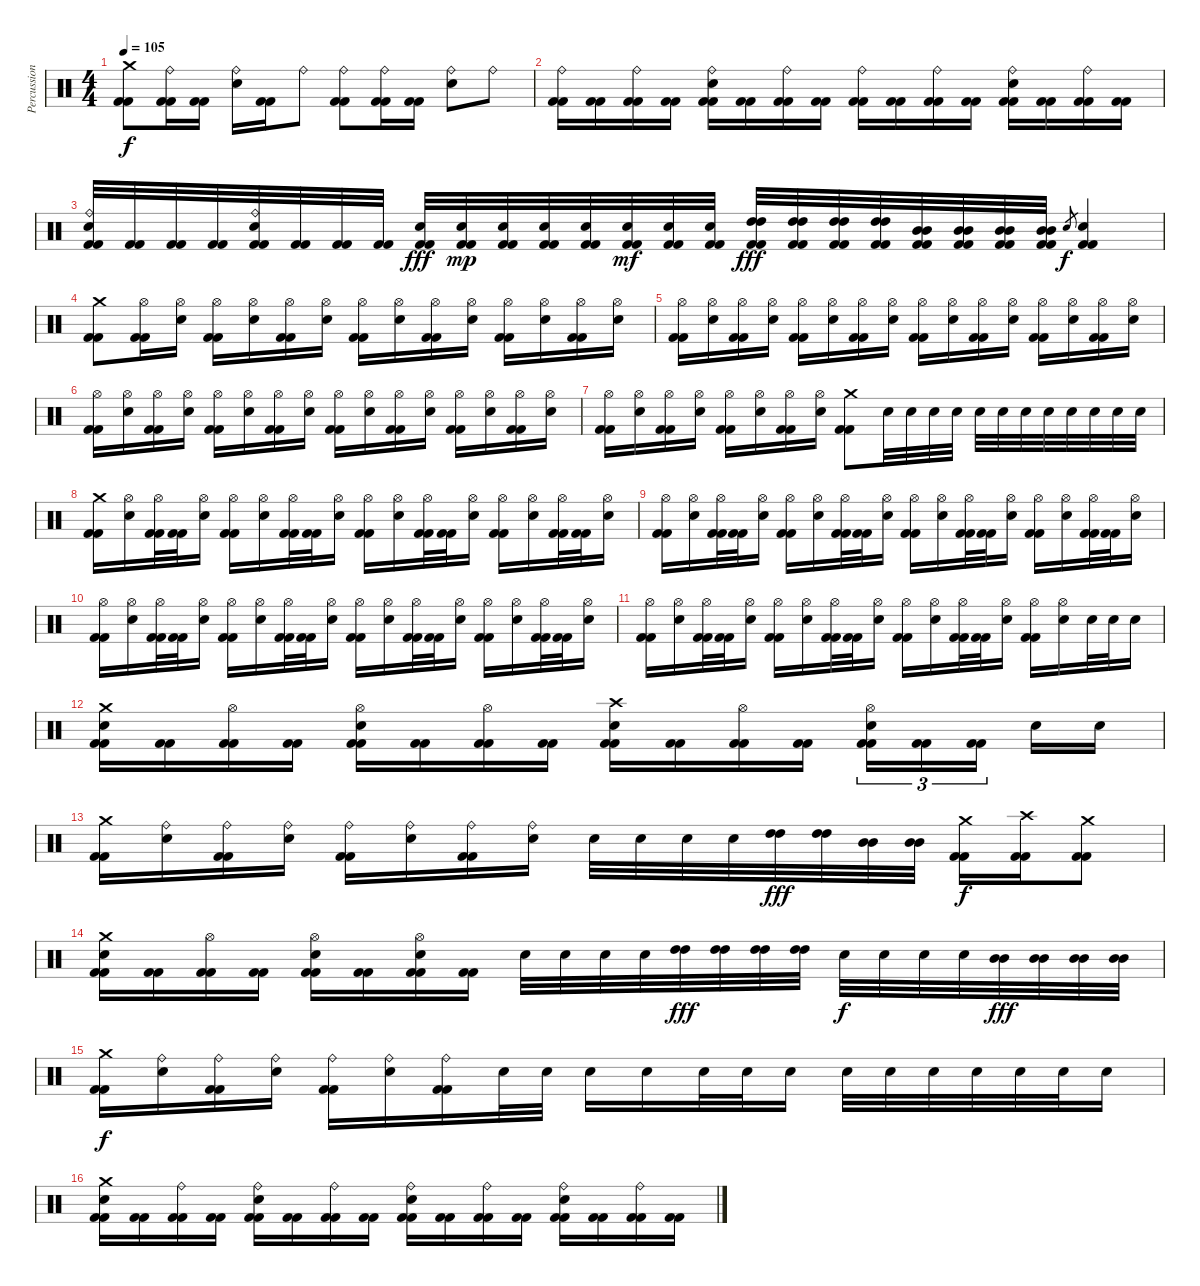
\track ("Percussion" "Percussion") {instrument percussion}
\staff {score}
\articulation defaults
\ts (4 4)
\tempo 105
\clef neutral
\ks c
("Kick (hit) 2" "Kick (hit) 2" "Crash medium (hit)").8{dy f} ("Kick (hit) 2" "Kick (hit) 2" "Ride (bell)").16 ("Kick (hit) 2" "Kick (hit) 2").16 ("Ride (bell)" "Electric Snare (hit)").16 ("Kick (hit) 2" "Kick (hit) 2").16 "Ride (bell)".8 ("Kick (hit) 2" "Kick (hit) 2" "Ride (bell)").8 ("Kick (hit) 2" "Kick (hit) 2" "Ride (bell)").16 ("Kick (hit) 2" "Kick (hit) 2").16 ("Ride (bell)" "Electric Snare (hit)").8 "Ride (bell)".8 |
("Kick (hit) 2" "Kick (hit) 2" "Ride (bell)").16 ("Kick (hit) 2" "Kick (hit) 2").16 ("Kick (hit) 2" "Kick (hit) 2" "Ride (bell)").16 ("Kick (hit) 2" "Kick (hit) 2").16 ("Kick (hit) 2" "Kick (hit) 2" "Ride (bell)" "Electric Snare (hit)").16 ("Kick (hit) 2" "Kick (hit) 2").16 ("Kick (hit) 2" "Kick (hit) 2" "Ride (bell)").16 ("Kick (hit) 2" "Kick (hit) 2").16 ("Kick (hit) 2" "Kick (hit) 2" "Ride (bell)").16 ("Kick (hit) 2" "Kick (hit) 2").16 ("Kick (hit) 2" "Kick (hit) 2" "Ride (bell)").16 ("Kick (hit) 2" "Kick (hit) 2").16 ("Kick (hit) 2" "Kick (hit) 2" "Ride (bell)" "Electric Snare (hit)").16 ("Kick (hit) 2" "Kick (hit) 2").16 ("Kick (hit) 2" "Kick (hit) 2" "Ride (bell)").16 ("Kick (hit) 2" "Kick (hit) 2").16 |
("Kick (hit) 2" "Kick (hit) 2" "Electric Snare (hit)" "Ride (bell)").32 ("Kick (hit) 2" "Kick (hit) 2").32 ("Kick (hit) 2" "Kick (hit) 2").32 ("Kick (hit) 2" "Kick (hit) 2").32 ("Kick (hit) 2" "Kick (hit) 2" "Electric Snare (hit)" "Ride (bell)").32 ("Kick (hit) 2" "Kick (hit) 2").32 ("Kick (hit) 2" "Kick (hit) 2").32 ("Kick (hit) 2" "Kick (hit) 2").32 ("Kick (hit) 2" "Kick (hit) 2" "Electric Snare (hit)").32{dy fff} ("Kick (hit) 2" "Kick (hit) 2" "Electric Snare (hit)").32{dy mp} ("Kick (hit) 2" "Kick (hit) 2" "Electric Snare (hit)").32 ("Kick (hit) 2" "Kick (hit) 2" "Electric Snare (hit)").32 ("Kick (hit) 2" "Kick (hit) 2" "Electric Snare (hit)").32 ("Kick (hit) 2" "Kick (hit) 2" "Electric Snare (hit)").32{dy mf} ("Kick (hit) 2" "Kick (hit) 2" "Electric Snare (hit)").32 ("Kick (hit) 2" "Kick (hit) 2" "Electric Snare (hit)").32 ("Kick (hit) 2" "Kick (hit) 2" "High Tom (hit)" "High Tom (hit)").32{dy fff} ("Kick (hit) 2" "Kick (hit) 2" "High Tom (hit)" "High Tom (hit)").32 ("Kick (hit) 2" "Kick (hit) 2" "High Tom (hit)" "High Tom (hit)").32 ("Kick (hit) 2" "Kick (hit) 2" "High Tom (hit)" "High Tom (hit)").32 ("Kick (hit) 2" "Kick (hit) 2" "Mid Tom (hit)" "Mid Tom (hit)").32 ("Kick (hit) 2" "Kick (hit) 2" "Mid Tom (hit)" "Mid Tom (hit)").32 ("Kick (hit) 2" "Kick (hit) 2" "Mid Tom (hit)" "Mid Tom (hit)").32 ("Kick (hit) 2" "Kick (hit) 2" "Mid Tom (hit)" "Mid Tom (hit)").32 "Electric Snare (hit)".8{gr dy f} ("Kick (hit) 2" "Electric Snare (hit)" "Kick (hit) 2").4 |
("Kick (hit) 2" "Kick (hit) 2" "Crash medium (hit)").8 ("Kick (hit) 2" "Kick (hit) 2" "Hi-Hat (open)").16 ("Hi-Hat (open)" "Electric Snare (hit)").16 ("Kick (hit) 2" "Kick (hit) 2" "Hi-Hat (open)").16 ("Hi-Hat (open)" "Electric Snare (hit)").16 ("Kick (hit) 2" "Kick (hit) 2" "Hi-Hat (open)").16 ("Hi-Hat (open)" "Electric Snare (hit)").16 ("Kick (hit) 2" "Kick (hit) 2" "Hi-Hat (open)").16 ("Hi-Hat (open)" "Electric Snare (hit)").16 ("Kick (hit) 2" "Kick (hit) 2" "Hi-Hat (open)").16 ("Hi-Hat (open)" "Electric Snare (hit)").16 ("Kick (hit) 2" "Kick (hit) 2" "Hi-Hat (open)").16 ("Hi-Hat (open)" "Electric Snare (hit)").16 ("Kick (hit) 2" "Kick (hit) 2" "Hi-Hat (open)").16 ("Hi-Hat (open)" "Electric Snare (hit)").16 |
("Kick (hit) 2" "Kick (hit) 2" "Hi-Hat (open)").16 ("Hi-Hat (open)" "Electric Snare (hit)").16 ("Kick (hit) 2" "Kick (hit) 2" "Hi-Hat (open)").16 ("Hi-Hat (open)" "Electric Snare (hit)").16 ("Kick (hit) 2" "Kick (hit) 2" "Hi-Hat (open)").16 ("Hi-Hat (open)" "Electric Snare (hit)").16 ("Kick (hit) 2" "Kick (hit) 2" "Hi-Hat (open)").16 ("Hi-Hat (open)" "Electric Snare (hit)").16 ("Kick (hit) 2" "Kick (hit) 2" "Hi-Hat (open)").16 ("Hi-Hat (open)" "Electric Snare (hit)").16 ("Kick (hit) 2" "Kick (hit) 2" "Hi-Hat (open)").16 ("Hi-Hat (open)" "Electric Snare (hit)").16 ("Kick (hit) 2" "Kick (hit) 2" "Hi-Hat (open)").16 ("Hi-Hat (open)" "Electric Snare (hit)").16 ("Kick (hit) 2" "Kick (hit) 2" "Hi-Hat (open)").16 ("Hi-Hat (open)" "Electric Snare (hit)").16 |
("Kick (hit) 2" "Kick (hit) 2" "Hi-Hat (open)").16 ("Hi-Hat (open)" "Electric Snare (hit)").16 ("Kick (hit) 2" "Kick (hit) 2" "Hi-Hat (open)").16 ("Hi-Hat (open)" "Electric Snare (hit)").16 ("Kick (hit) 2" "Kick (hit) 2" "Hi-Hat (open)").16 ("Hi-Hat (open)" "Electric Snare (hit)").16 ("Kick (hit) 2" "Kick (hit) 2" "Hi-Hat (open)").16 ("Hi-Hat (open)" "Electric Snare (hit)").16 ("Kick (hit) 2" "Kick (hit) 2" "Hi-Hat (open)").16 ("Hi-Hat (open)" "Electric Snare (hit)").16 ("Kick (hit) 2" "Kick (hit) 2" "Hi-Hat (open)").16 ("Hi-Hat (open)" "Electric Snare (hit)").16 ("Kick (hit) 2" "Kick (hit) 2" "Hi-Hat (open)").16 ("Hi-Hat (open)" "Electric Snare (hit)").16 ("Kick (hit) 2" "Kick (hit) 2" "Hi-Hat (open)").16 ("Hi-Hat (open)" "Electric Snare (hit)").16 |
("Kick (hit) 2" "Kick (hit) 2" "Hi-Hat (open)").16 ("Hi-Hat (open)" "Electric Snare (hit)").16 ("Kick (hit) 2" "Kick (hit) 2" "Hi-Hat (open)").16 ("Hi-Hat (open)" "Electric Snare (hit)").16 ("Kick (hit) 2" "Kick (hit) 2" "Hi-Hat (open)").16 ("Hi-Hat (open)" "Electric Snare (hit)").16 ("Kick (hit) 2" "Kick (hit) 2" "Hi-Hat (open)").16 ("Hi-Hat (open)" "Electric Snare (hit)").16 ("Kick (hit) 2" "Kick (hit) 2" "Crash medium (hit)").8 "Electric Snare (hit)".32 "Electric Snare (hit)".32 "Electric Snare (hit)".32 "Electric Snare (hit)".32 "Electric Snare (hit)".32 "Electric Snare (hit)".32 "Electric Snare (hit)".32 "Electric Snare (hit)".32 "Electric Snare (hit)".32 "Electric Snare (hit)".32 "Electric Snare (hit)".32 "Electric Snare (hit)".32 |
("Kick (hit) 2" "Kick (hit) 2" "Crash medium (hit)").16 ("Hi-Hat (open)" "Electric Snare (hit)").16 ("Kick (hit) 2" "Kick (hit) 2" "Hi-Hat (open)").32 ("Kick (hit) 2" "Kick (hit) 2").32 ("Hi-Hat (open)" "Electric Snare (hit)").16 ("Kick (hit) 2" "Kick (hit) 2" "Hi-Hat (open)").16 ("Hi-Hat (open)" "Electric Snare (hit)").16 ("Kick (hit) 2" "Kick (hit) 2" "Hi-Hat (open)").32 ("Kick (hit) 2" "Kick (hit) 2").32 ("Hi-Hat (open)" "Electric Snare (hit)").16 ("Kick (hit) 2" "Kick (hit) 2" "Hi-Hat (open)").16 ("Hi-Hat (open)" "Electric Snare (hit)").16 ("Kick (hit) 2" "Kick (hit) 2" "Hi-Hat (open)").32 ("Kick (hit) 2" "Kick (hit) 2").32 ("Hi-Hat (open)" "Electric Snare (hit)").16 ("Kick (hit) 2" "Kick (hit) 2" "Hi-Hat (open)").16 ("Hi-Hat (open)" "Electric Snare (hit)").16 ("Kick (hit) 2" "Kick (hit) 2" "Hi-Hat (open)").32 ("Kick (hit) 2" "Kick (hit) 2").32 ("Hi-Hat (open)" "Electric Snare (hit)").16 |
("Kick (hit) 2" "Kick (hit) 2" "Hi-Hat (open)").16 ("Hi-Hat (open)" "Electric Snare (hit)").16 ("Kick (hit) 2" "Kick (hit) 2" "Hi-Hat (open)").32 ("Kick (hit) 2" "Kick (hit) 2").32 ("Hi-Hat (open)" "Electric Snare (hit)").16 ("Kick (hit) 2" "Kick (hit) 2" "Hi-Hat (open)").16 ("Hi-Hat (open)" "Electric Snare (hit)").16 ("Kick (hit) 2" "Kick (hit) 2" "Hi-Hat (open)").32 ("Kick (hit) 2" "Kick (hit) 2").32 ("Hi-Hat (open)" "Electric Snare (hit)").16 ("Kick (hit) 2" "Kick (hit) 2" "Hi-Hat (open)").16 ("Hi-Hat (open)" "Electric Snare (hit)").16 ("Kick (hit) 2" "Kick (hit) 2" "Hi-Hat (open)").32 ("Kick (hit) 2" "Kick (hit) 2").32 ("Hi-Hat (open)" "Electric Snare (hit)").16 ("Kick (hit) 2" "Kick (hit) 2" "Hi-Hat (open)").16 ("Hi-Hat (open)" "Electric Snare (hit)").16 ("Kick (hit) 2" "Kick (hit) 2" "Hi-Hat (open)").32 ("Kick (hit) 2" "Kick (hit) 2").32 ("Hi-Hat (open)" "Electric Snare (hit)").16 |
("Kick (hit) 2" "Kick (hit) 2" "Hi-Hat (open)").16 ("Hi-Hat (open)" "Electric Snare (hit)").16 ("Kick (hit) 2" "Kick (hit) 2" "Hi-Hat (open)").32 ("Kick (hit) 2" "Kick (hit) 2").32 ("Hi-Hat (open)" "Electric Snare (hit)").16 ("Kick (hit) 2" "Kick (hit) 2" "Hi-Hat (open)").16 ("Hi-Hat (open)" "Electric Snare (hit)").16 ("Kick (hit) 2" "Kick (hit) 2" "Hi-Hat (open)").32 ("Kick (hit) 2" "Kick (hit) 2").32 ("Hi-Hat (open)" "Electric Snare (hit)").16 ("Kick (hit) 2" "Kick (hit) 2" "Hi-Hat (open)").16 ("Hi-Hat (open)" "Electric Snare (hit)").16 ("Kick (hit) 2" "Kick (hit) 2" "Hi-Hat (open)").32 ("Kick (hit) 2" "Kick (hit) 2").32 ("Hi-Hat (open)" "Electric Snare (hit)").16 ("Kick (hit) 2" "Kick (hit) 2" "Hi-Hat (open)").16 ("Hi-Hat (open)" "Electric Snare (hit)").16 ("Kick (hit) 2" "Kick (hit) 2" "Hi-Hat (open)").32 ("Kick (hit) 2" "Kick (hit) 2").32 ("Hi-Hat (open)" "Electric Snare (hit)").16 |
("Kick (hit) 2" "Kick (hit) 2" "Hi-Hat (open)").16 ("Hi-Hat (open)" "Electric Snare (hit)").16 ("Kick (hit) 2" "Kick (hit) 2" "Hi-Hat (open)").32 ("Kick (hit) 2" "Kick (hit) 2").32 ("Hi-Hat (open)" "Electric Snare (hit)").16 ("Kick (hit) 2" "Kick (hit) 2" "Hi-Hat (open)").16 ("Hi-Hat (open)" "Electric Snare (hit)").16 ("Kick (hit) 2" "Kick (hit) 2" "Hi-Hat (open)").32 ("Kick (hit) 2" "Kick (hit) 2").32 ("Hi-Hat (open)" "Electric Snare (hit)").16 ("Kick (hit) 2" "Kick (hit) 2" "Hi-Hat (open)").16 ("Hi-Hat (open)" "Electric Snare (hit)").16 ("Kick (hit) 2" "Kick (hit) 2" "Hi-Hat (open)").32 ("Kick (hit) 2" "Kick (hit) 2").32 ("Hi-Hat (open)" "Electric Snare (hit)").16 ("Kick (hit) 2" "Kick (hit) 2" "Hi-Hat (open)").16 ("Hi-Hat (open)" "Electric Snare (hit)").16 "Electric Snare (hit)".32 "Electric Snare (hit)".32 "Electric Snare (hit)".16 |
("Electric Snare (hit)" "Crash medium (hit)" "Kick (hit) 2" "Kick (hit) 2").16 ("Kick (hit) 2" "Kick (hit) 2").16 ("Hi-Hat (open)" "Kick (hit) 2" "Kick (hit) 2").16 ("Kick (hit) 2" "Kick (hit) 2").16 ("Electric Snare (hit)" "Hi-Hat (open)" "Kick (hit) 2" "Kick (hit) 2").16 ("Kick (hit) 2" "Kick (hit) 2").16 ("Hi-Hat (open)" "Kick (hit) 2" "Kick (hit) 2").16 ("Kick (hit) 2" "Kick (hit) 2").16 ("Electric Snare (hit)" "Crash high (hit)" "Kick (hit) 2" "Kick (hit) 2").16 ("Kick (hit) 2" "Kick (hit) 2").16 ("Hi-Hat (open)" "Kick (hit) 2" "Kick (hit) 2").16 ("Kick (hit) 2" "Kick (hit) 2").16 ("Electric Snare (hit)" "Hi-Hat (open)" "Kick (hit) 2" "Kick (hit) 2").16{tu (3 2)} ("Kick (hit) 2" "Kick (hit) 2").16{tu (3 2)} ("Kick (hit) 2" "Kick (hit) 2").16{tu (3 2)} "Electric Snare (hit)".16 "Electric Snare (hit)".16 |
("Kick (hit) 2" "Kick (hit) 2" "Crash medium (hit)").16 ("Ride (bell)" "Electric Snare (hit)").16 ("Kick (hit) 2" "Kick (hit) 2" "Ride (bell)").16 ("Ride (bell)" "Electric Snare (hit)").16 ("Kick (hit) 2" "Kick (hit) 2" "Ride (bell)").16 ("Ride (bell)" "Electric Snare (hit)").16 ("Kick (hit) 2" "Kick (hit) 2" "Ride (bell)").16 ("Ride (bell)" "Electric Snare (hit)").16 "Electric Snare (hit)".32 "Electric Snare (hit)".32 "Electric Snare (hit)".32 "Electric Snare (hit)".32 ("High Tom (hit)" "High Tom (hit)").32{dy fff} ("High Tom (hit)" "High Tom (hit)").32 ("Mid Tom (hit)" "Mid Tom (hit)").32 ("Mid Tom (hit)" "Mid Tom (hit)").32 ("Kick (hit) 2" "Kick (hit) 2" "Crash medium (hit)").16{dy f} ("Kick (hit) 2" "Kick (hit) 2" "Crash high (hit)").16 ("Kick (hit) 2" "Kick (hit) 2" "Crash medium (hit)").8 |
("Electric Snare (hit)" "Crash medium (hit)" "Kick (hit) 2" "Kick (hit) 2").16 ("Kick (hit) 2" "Kick (hit) 2").16 ("Hi-Hat (open)" "Kick (hit) 2" "Kick (hit) 2").16 ("Kick (hit) 2" "Kick (hit) 2").16 ("Electric Snare (hit)" "Hi-Hat (open)" "Kick (hit) 2" "Kick (hit) 2").16 ("Kick (hit) 2" "Kick (hit) 2").16 ("Electric Snare (hit)" "Hi-Hat (open)" "Kick (hit) 2" "Kick (hit) 2").16 ("Kick (hit) 2" "Kick (hit) 2").16 "Electric Snare (hit)".32 "Electric Snare (hit)".32 "Electric Snare (hit)".32 "Electric Snare (hit)".32 ("High Tom (hit)" "High Tom (hit)").32{dy fff} ("High Tom (hit)" "High Tom (hit)").32 ("High Tom (hit)" "High Tom (hit)").32 ("High Tom (hit)" "High Tom (hit)").32 "Electric Snare (hit)".32{dy f} "Electric Snare (hit)".32 "Electric Snare (hit)".32 "Electric Snare (hit)".32 ("Mid Tom (hit)" "Mid Tom (hit)").32{dy fff} ("Mid Tom (hit)" "Mid Tom (hit)").32 ("Mid Tom (hit)" "Mid Tom (hit)").32 ("Mid Tom (hit)" "Mid Tom (hit)").32 |
("Kick (hit) 2" "Kick (hit) 2" "Crash medium (hit)").16{dy f} ("Ride (bell)" "Electric Snare (hit)").16 ("Kick (hit) 2" "Kick (hit) 2" "Ride (bell)").16 ("Ride (bell)" "Electric Snare (hit)").16 ("Kick (hit) 2" "Kick (hit) 2" "Ride (bell)").16 ("Ride (bell)" "Electric Snare (hit)").16 ("Kick (hit) 2" "Kick (hit) 2" "Ride (bell)").16 "Electric Snare (hit)".32 "Electric Snare (hit)".32 "Electric Snare (hit)".16 "Electric Snare (hit)".16 "Electric Snare (hit)".32 "Electric Snare (hit)".32 "Electric Snare (hit)".16 "Electric Snare (hit)".32 "Electric Snare (hit)".32 "Electric Snare (hit)".32 "Electric Snare (hit)".32 "Electric Snare (hit)".32 "Electric Snare (hit)".32 "Electric Snare (hit)".16 |
("Kick (hit) 2" "Kick (hit) 2" "Crash medium (hit)" "Electric Snare (hit)").16 ("Kick (hit) 2" "Kick (hit) 2").16 ("Kick (hit) 2" "Kick (hit) 2" "Ride (bell)").16 ("Kick (hit) 2" "Kick (hit) 2").16 ("Kick (hit) 2" "Kick (hit) 2" "Ride (bell)" "Electric Snare (hit)").16 ("Kick (hit) 2" "Kick (hit) 2").16 ("Kick (hit) 2" "Kick (hit) 2" "Ride (bell)").16 ("Kick (hit) 2" "Kick (hit) 2").16 ("Kick (hit) 2" "Kick (hit) 2" "Ride (bell)" "Electric Snare (hit)").16 ("Kick (hit) 2" "Kick (hit) 2").16 ("Kick (hit) 2" "Kick (hit) 2" "Ride (bell)").16 ("Kick (hit) 2" "Kick (hit) 2").16 ("Kick (hit) 2" "Kick (hit) 2" "Ride (bell)" "Electric Snare (hit)").16 ("Kick (hit) 2" "Kick (hit) 2").16 ("Kick (hit) 2" "Kick (hit) 2" "Ride (bell)").16 ("Kick (hit) 2" "Kick (hit) 2").16
